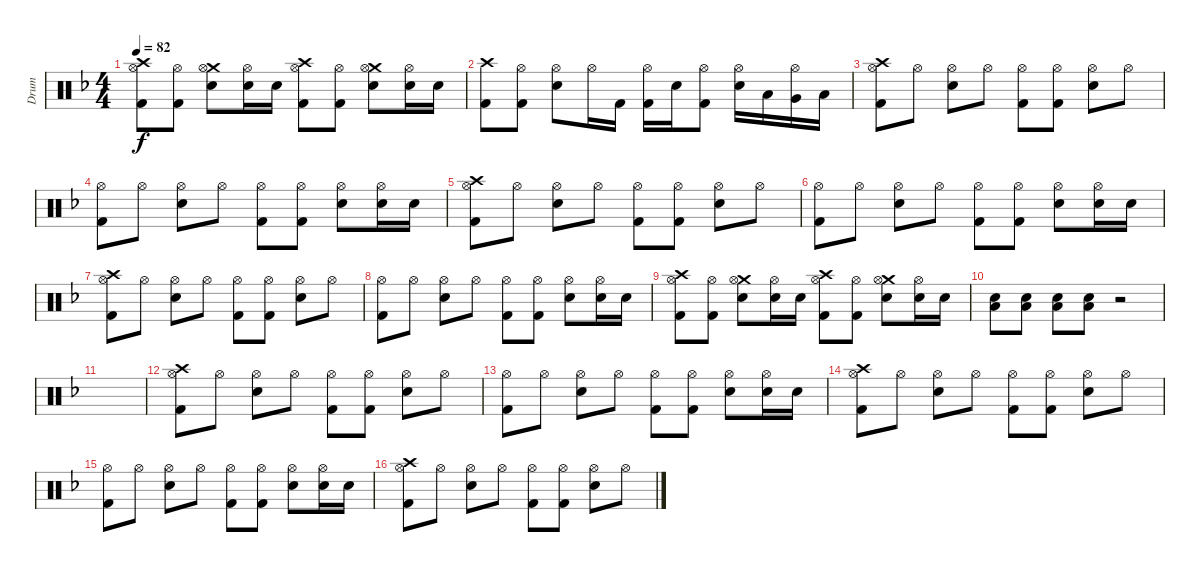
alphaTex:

\track ("Drum" "Drum") {instrument percussion}
\staff {score}
\articulation defaults
\ts (4 4)
\tempo 82
\clef neutral
\ks f
("Crash high (hit)" "Hi-Hat (open)" "Kick (hit) 2").8{dy f} ("Hi-Hat (open)" "Kick (hit) 2").8 ("Crash medium (hit)" "Hi-Hat (open)" "Electric Snare (hit)").8 ("Hi-Hat (open)" "Electric Snare (hit)").16 "Electric Snare (hit)".16 ("Crash high (hit)" "Hi-Hat (open)" "Kick (hit) 2").8 ("Hi-Hat (open)" "Kick (hit) 2").8 ("Crash medium (hit)" "Hi-Hat (open)" "Electric Snare (hit)").8 ("Hi-Hat (open)" "Electric Snare (hit)").16 "Electric Snare (hit)".16 |
("Crash high (hit)" "Kick (hit) 2").8 ("Hi-Hat (open)" "Kick (hit) 2").8 ("Hi-Hat (open)" "Electric Snare (hit)").8 "Hi-Hat (open)".16 "Kick (hit) 2".16 ("Hi-Hat (open)" "Kick (hit) 2").16 "Electric Snare (hit)".16 ("Hi-Hat (open)" "Kick (hit) 2").8 ("Hi-Hat (open)" "Electric Snare (hit)").16 "Low Tom (hit)".16 ("Hi-Hat (open)" "Very Low Tom (hit)").16 "Low Floor Tom (hit)".16 |
("Crash high (hit)" "Hi-Hat (open)" "Kick (hit) 2").8 "Hi-Hat (open)".8 ("Hi-Hat (open)" "Electric Snare (hit)").8 "Hi-Hat (open)".8 ("Hi-Hat (open)" "Kick (hit) 2").8 ("Hi-Hat (open)" "Kick (hit) 2").8 ("Hi-Hat (open)" "Electric Snare (hit)").8 "Hi-Hat (open)".8 |
("Hi-Hat (open)" "Kick (hit) 2").8 "Hi-Hat (open)".8 ("Hi-Hat (open)" "Electric Snare (hit)").8 "Hi-Hat (open)".8 ("Hi-Hat (open)" "Kick (hit) 2").8 ("Hi-Hat (open)" "Kick (hit) 2").8 ("Hi-Hat (open)" "Electric Snare (hit)").8 ("Hi-Hat (open)" "Electric Snare (hit)").16 "Electric Snare (hit)".16 |
("Crash high (hit)" "Hi-Hat (open)" "Kick (hit) 2").8 "Hi-Hat (open)".8 ("Hi-Hat (open)" "Electric Snare (hit)").8 "Hi-Hat (open)".8 ("Hi-Hat (open)" "Kick (hit) 2").8 ("Hi-Hat (open)" "Kick (hit) 2").8 ("Hi-Hat (open)" "Electric Snare (hit)").8 "Hi-Hat (open)".8 |
("Hi-Hat (open)" "Kick (hit) 2").8 "Hi-Hat (open)".8 ("Hi-Hat (open)" "Electric Snare (hit)").8 "Hi-Hat (open)".8 ("Hi-Hat (open)" "Kick (hit) 2").8 ("Hi-Hat (open)" "Kick (hit) 2").8 ("Hi-Hat (open)" "Electric Snare (hit)").8 ("Hi-Hat (open)" "Electric Snare (hit)").16 "Electric Snare (hit)".16 |
("Crash high (hit)" "Hi-Hat (open)" "Kick (hit) 2").8 "Hi-Hat (open)".8 ("Hi-Hat (open)" "Electric Snare (hit)").8 "Hi-Hat (open)".8 ("Hi-Hat (open)" "Kick (hit) 2").8 ("Hi-Hat (open)" "Kick (hit) 2").8 ("Hi-Hat (open)" "Electric Snare (hit)").8 "Hi-Hat (open)".8 |
("Hi-Hat (open)" "Kick (hit) 2").8 "Hi-Hat (open)".8 ("Hi-Hat (open)" "Electric Snare (hit)").8 "Hi-Hat (open)".8 ("Hi-Hat (open)" "Kick (hit) 2").8 ("Hi-Hat (open)" "Kick (hit) 2").8 ("Hi-Hat (open)" "Electric Snare (hit)").8 ("Hi-Hat (open)" "Electric Snare (hit)").16 "Electric Snare (hit)".16 |
("Crash high (hit)" "Hi-Hat (open)" "Kick (hit) 2").8 ("Hi-Hat (open)" "Kick (hit) 2").8 ("Crash medium (hit)" "Hi-Hat (open)" "Electric Snare (hit)").8 ("Hi-Hat (open)" "Electric Snare (hit)").16 "Electric Snare (hit)".16 ("Crash high (hit)" "Hi-Hat (open)" "Kick (hit) 2").8 ("Hi-Hat (open)" "Kick (hit) 2").8 ("Crash medium (hit)" "Hi-Hat (open)" "Electric Snare (hit)").8 ("Hi-Hat (open)" "Electric Snare (hit)").16 "Electric Snare (hit)".16 |
("Low Floor Tom (hit)" "Electric Snare (hit)").8 ("Low Floor Tom (hit)" "Electric Snare (hit)").8 ("Low Floor Tom (hit)" "Electric Snare (hit)").8 ("Low Floor Tom (hit)" "Electric Snare (hit)").8 r.2 |
|
("Crash high (hit)" "Hi-Hat (open)" "Kick (hit) 2").8 "Hi-Hat (open)".8 ("Hi-Hat (open)" "Electric Snare (hit)").8 "Hi-Hat (open)".8 ("Hi-Hat (open)" "Kick (hit) 2").8 ("Hi-Hat (open)" "Kick (hit) 2").8 ("Hi-Hat (open)" "Electric Snare (hit)").8 "Hi-Hat (open)".8 |
("Hi-Hat (open)" "Kick (hit) 2").8 "Hi-Hat (open)".8 ("Hi-Hat (open)" "Electric Snare (hit)").8 "Hi-Hat (open)".8 ("Hi-Hat (open)" "Kick (hit) 2").8 ("Hi-Hat (open)" "Kick (hit) 2").8 ("Hi-Hat (open)" "Electric Snare (hit)").8 ("Hi-Hat (open)" "Electric Snare (hit)").16 "Electric Snare (hit)".16 |
("Crash high (hit)" "Hi-Hat (open)" "Kick (hit) 2").8 "Hi-Hat (open)".8 ("Hi-Hat (open)" "Electric Snare (hit)").8 "Hi-Hat (open)".8 ("Hi-Hat (open)" "Kick (hit) 2").8 ("Hi-Hat (open)" "Kick (hit) 2").8 ("Hi-Hat (open)" "Electric Snare (hit)").8 "Hi-Hat (open)".8 |
("Hi-Hat (open)" "Kick (hit) 2").8 "Hi-Hat (open)".8 ("Hi-Hat (open)" "Electric Snare (hit)").8 "Hi-Hat (open)".8 ("Hi-Hat (open)" "Kick (hit) 2").8 ("Hi-Hat (open)" "Kick (hit) 2").8 ("Hi-Hat (open)" "Electric Snare (hit)").8 ("Hi-Hat (open)" "Electric Snare (hit)").16 "Electric Snare (hit)".16 |
("Crash high (hit)" "Hi-Hat (open)" "Kick (hit) 2").8 "Hi-Hat (open)".8 ("Hi-Hat (open)" "Electric Snare (hit)").8 "Hi-Hat (open)".8 ("Hi-Hat (open)" "Kick (hit) 2").8 ("Hi-Hat (open)" "Kick (hit) 2").8 ("Hi-Hat (open)" "Electric Snare (hit)").8 "Hi-Hat (open)".8
